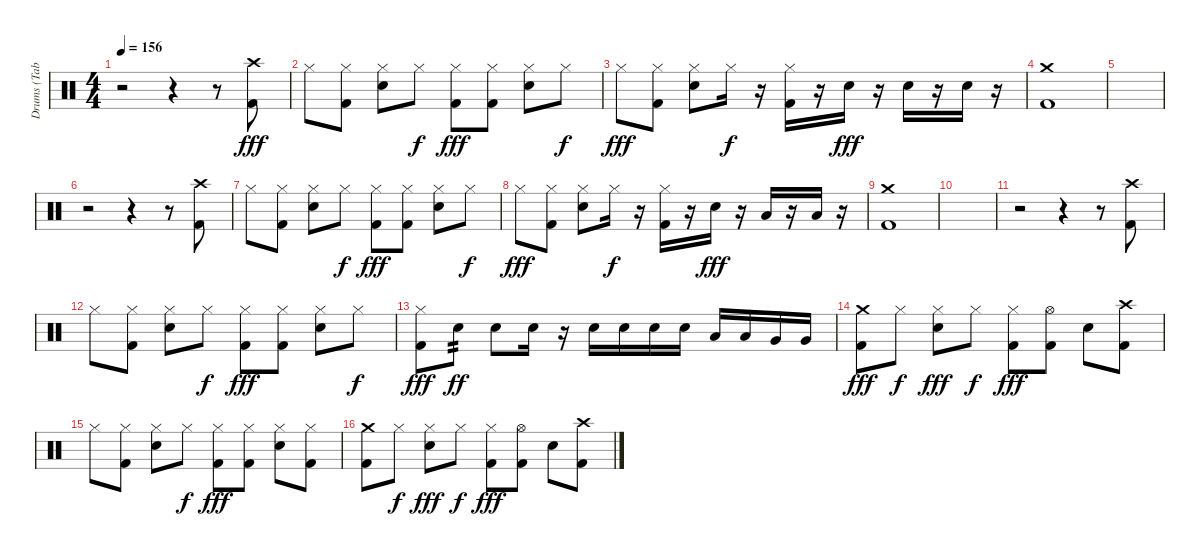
\track ("Drums (Tab By Drumminger)" "Drums (Tab") {instrument percussion}
\staff {score}
\articulation defaults
\ts (4 4)
\tempo 156
\clef neutral
\ks c
r.2{dy fff} r.4 r.8 ("Crash high (hit)" "Kick (hit) 2").8 |
"Hi-Hat (closed)".8 ("Hi-Hat (closed)" "Kick (hit) 2").8 ("Hi-Hat (closed)" "Snare (hit) 2").8 "Hi-Hat (closed)".8{dy f} ("Hi-Hat (closed)" "Kick (hit) 2").8{dy fff} ("Hi-Hat (closed)" "Kick (hit) 2").8 ("Hi-Hat (closed)" "Snare (hit) 2").8 "Hi-Hat (closed)".8{dy f} |
"Hi-Hat (closed)".8{dy fff} ("Hi-Hat (closed)" "Kick (hit) 2").8 ("Hi-Hat (closed)" "Snare (hit) 2").8 "Hi-Hat (closed)".16{dy f} r.16 ("Hi-Hat (closed)" "Kick (hit) 2").16 r.16 "Snare (hit) 2".16{dy fff} r.16 "Snare (hit) 2".16 r.16 "Snare (hit) 2".16 r.16 |
("Crash medium (hit)" "Kick (hit) 2").1 |
|
r.2 r.4 r.8 ("Crash high (hit)" "Kick (hit) 2").8 |
"Hi-Hat (closed)".8 ("Hi-Hat (closed)" "Kick (hit) 2").8 ("Hi-Hat (closed)" "Snare (hit) 2").8 "Hi-Hat (closed)".8{dy f} ("Hi-Hat (closed)" "Kick (hit) 2").8{dy fff} ("Hi-Hat (closed)" "Kick (hit) 2").8 ("Hi-Hat (closed)" "Snare (hit) 2").8 "Hi-Hat (closed)".8{dy f} |
"Hi-Hat (closed)".8{dy fff} ("Hi-Hat (closed)" "Kick (hit) 2").8 ("Hi-Hat (closed)" "Snare (hit) 2").8 "Hi-Hat (closed)".16{dy f} r.16 ("Hi-Hat (closed)" "Kick (hit) 2").16 r.16 "Snare (hit) 2".16{dy fff} r.16 "Low Tom (hit)".16 r.16 "Low Tom (hit)".16 r.16 |
("Crash medium (hit)" "Kick (hit) 2").1 |
|
r.2 r.4 r.8 ("Crash high (hit)" "Kick (hit) 2").8 |
"Hi-Hat (closed)".8 ("Hi-Hat (closed)" "Kick (hit) 2").8 ("Hi-Hat (closed)" "Snare (hit) 2").8 "Hi-Hat (closed)".8{dy f} ("Hi-Hat (closed)" "Kick (hit) 2").8{dy fff} ("Hi-Hat (closed)" "Kick (hit) 2").8 ("Hi-Hat (closed)" "Snare (hit) 2").8 "Hi-Hat (closed)".8{dy f} |
("Hi-Hat (closed)" "Kick (hit) 2").8{dy fff} "Snare (hit) 2".8{tp 2 dy ff} "Snare (hit) 2".8 "Snare (hit) 2".16 r.16 "Snare (hit) 2".16 "Snare (hit) 2".16 "Snare (hit) 2".16 "Snare (hit) 2".16 "Low Tom (hit)".16 "Low Tom (hit)".16 "Very Low Tom (hit)".16 "Very Low Tom (hit)".16 |
("Crash medium (hit)" "Kick (hit) 2").8{dy fff} "Hi-Hat (closed)".8{dy f} ("Hi-Hat (closed)" "Snare (hit) 2").8{dy fff} "Hi-Hat (closed)".8{dy f} ("Hi-Hat (closed)" "Kick (hit) 2").8{dy fff} ("Hi-Hat (open)" "Kick (hit) 2").8 "Snare (hit) 2".8 ("Crash high (hit)" "Kick (hit) 2").8 |
"Hi-Hat (closed)".8 ("Hi-Hat (closed)" "Kick (hit) 2").8 ("Hi-Hat (closed)" "Snare (hit) 2").8 "Hi-Hat (closed)".8{dy f} ("Hi-Hat (closed)" "Kick (hit) 2").8{dy fff} ("Hi-Hat (closed)" "Kick (hit) 2").8 ("Hi-Hat (closed)" "Snare (hit) 2").8 ("Hi-Hat (closed)" "Kick (hit) 2").8 |
("Crash medium (hit)" "Kick (hit) 2").8 "Hi-Hat (closed)".8{dy f} ("Hi-Hat (closed)" "Snare (hit) 2").8{dy fff} "Hi-Hat (closed)".8{dy f} ("Hi-Hat (closed)" "Kick (hit) 2").8{dy fff} ("Hi-Hat (open)" "Kick (hit) 2").8 "Snare (hit) 2".8 ("Crash high (hit)" "Kick (hit) 2").8
